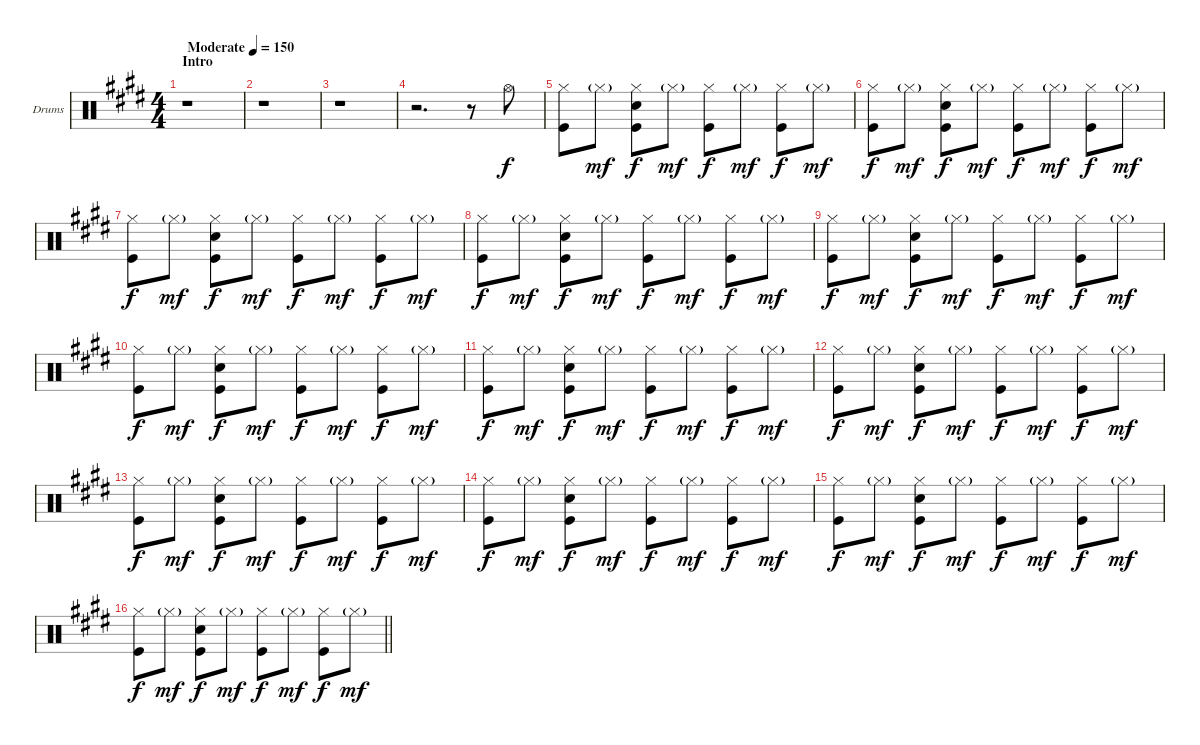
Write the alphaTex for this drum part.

\bracketExtendMode groupsimilarinstruments
\firstSystemTrackNameOrientation horizontal
\otherSystemsTrackNameOrientation horizontal
\track ("Drumkit" "Drums") {instrument percussion}
\staff {score}
\articulation defaults
\ts (4 4)
\beaming (8 2 2 2 2)
\section ("" "Intro")
\tempo (150 "Moderate")
\clef neutral
\ks e
r.1{dy f} |
r.1 |
r.1 |
r.2{d} r.8 "Hi-Hat (open)".8 |
("Hi-Hat (closed)" "Kick (hit)").8 "Hi-Hat (closed)"{g}.8{dy mf} ("Hi-Hat (closed)" "Snare (hit) 2" "Kick (hit)").8{dy f} "Hi-Hat (closed)"{g}.8{dy mf} ("Hi-Hat (closed)" "Kick (hit)").8{dy f} "Hi-Hat (closed)"{g}.8{dy mf} ("Hi-Hat (closed)" "Kick (hit)").8{dy f} "Hi-Hat (closed)"{g}.8{dy mf} |
("Hi-Hat (closed)" "Kick (hit)").8{dy f} "Hi-Hat (closed)"{g}.8{dy mf} ("Hi-Hat (closed)" "Snare (hit) 2" "Kick (hit)").8{dy f} "Hi-Hat (closed)"{g}.8{dy mf} ("Hi-Hat (closed)" "Kick (hit)").8{dy f} "Hi-Hat (closed)"{g}.8{dy mf} ("Hi-Hat (closed)" "Kick (hit)").8{dy f} "Hi-Hat (closed)"{g}.8{dy mf} |
("Hi-Hat (closed)" "Kick (hit)").8{dy f} "Hi-Hat (closed)"{g}.8{dy mf} ("Hi-Hat (closed)" "Snare (hit) 2" "Kick (hit)").8{dy f} "Hi-Hat (closed)"{g}.8{dy mf} ("Hi-Hat (closed)" "Kick (hit)").8{dy f} "Hi-Hat (closed)"{g}.8{dy mf} ("Hi-Hat (closed)" "Kick (hit)").8{dy f} "Hi-Hat (closed)"{g}.8{dy mf} |
("Hi-Hat (closed)" "Kick (hit)").8{dy f} "Hi-Hat (closed)"{g}.8{dy mf} ("Hi-Hat (closed)" "Snare (hit) 2" "Kick (hit)").8{dy f} "Hi-Hat (closed)"{g}.8{dy mf} ("Hi-Hat (closed)" "Kick (hit)").8{dy f} "Hi-Hat (closed)"{g}.8{dy mf} ("Hi-Hat (closed)" "Kick (hit)").8{dy f} "Hi-Hat (closed)"{g}.8{dy mf} |
("Hi-Hat (closed)" "Kick (hit)").8{dy f} "Hi-Hat (closed)"{g}.8{dy mf} ("Hi-Hat (closed)" "Snare (hit) 2" "Kick (hit)").8{dy f} "Hi-Hat (closed)"{g}.8{dy mf} ("Hi-Hat (closed)" "Kick (hit)").8{dy f} "Hi-Hat (closed)"{g}.8{dy mf} ("Hi-Hat (closed)" "Kick (hit)").8{dy f} "Hi-Hat (closed)"{g}.8{dy mf} |
("Hi-Hat (closed)" "Kick (hit)").8{dy f} "Hi-Hat (closed)"{g}.8{dy mf} ("Hi-Hat (closed)" "Snare (hit) 2" "Kick (hit)").8{dy f} "Hi-Hat (closed)"{g}.8{dy mf} ("Hi-Hat (closed)" "Kick (hit)").8{dy f} "Hi-Hat (closed)"{g}.8{dy mf} ("Hi-Hat (closed)" "Kick (hit)").8{dy f} "Hi-Hat (closed)"{g}.8{dy mf} |
("Hi-Hat (closed)" "Kick (hit)").8{dy f} "Hi-Hat (closed)"{g}.8{dy mf} ("Hi-Hat (closed)" "Snare (hit) 2" "Kick (hit)").8{dy f} "Hi-Hat (closed)"{g}.8{dy mf} ("Hi-Hat (closed)" "Kick (hit)").8{dy f} "Hi-Hat (closed)"{g}.8{dy mf} ("Hi-Hat (closed)" "Kick (hit)").8{dy f} "Hi-Hat (closed)"{g}.8{dy mf} |
("Hi-Hat (closed)" "Kick (hit)").8{dy f} "Hi-Hat (closed)"{g}.8{dy mf} ("Hi-Hat (closed)" "Snare (hit) 2" "Kick (hit)").8{dy f} "Hi-Hat (closed)"{g}.8{dy mf} ("Hi-Hat (closed)" "Kick (hit)").8{dy f} "Hi-Hat (closed)"{g}.8{dy mf} ("Hi-Hat (closed)" "Kick (hit)").8{dy f} "Hi-Hat (closed)"{g}.8{dy mf} |
("Hi-Hat (closed)" "Kick (hit)").8{dy f} "Hi-Hat (closed)"{g}.8{dy mf} ("Hi-Hat (closed)" "Snare (hit) 2" "Kick (hit)").8{dy f} "Hi-Hat (closed)"{g}.8{dy mf} ("Hi-Hat (closed)" "Kick (hit)").8{dy f} "Hi-Hat (closed)"{g}.8{dy mf} ("Hi-Hat (closed)" "Kick (hit)").8{dy f} "Hi-Hat (closed)"{g}.8{dy mf} |
("Hi-Hat (closed)" "Kick (hit)").8{dy f} "Hi-Hat (closed)"{g}.8{dy mf} ("Hi-Hat (closed)" "Snare (hit) 2" "Kick (hit)").8{dy f} "Hi-Hat (closed)"{g}.8{dy mf} ("Hi-Hat (closed)" "Kick (hit)").8{dy f} "Hi-Hat (closed)"{g}.8{dy mf} ("Hi-Hat (closed)" "Kick (hit)").8{dy f} "Hi-Hat (closed)"{g}.8{dy mf} |
("Hi-Hat (closed)" "Kick (hit)").8{dy f} "Hi-Hat (closed)"{g}.8{dy mf} ("Hi-Hat (closed)" "Snare (hit) 2" "Kick (hit)").8{dy f} "Hi-Hat (closed)"{g}.8{dy mf} ("Hi-Hat (closed)" "Kick (hit)").8{dy f} "Hi-Hat (closed)"{g}.8{dy mf} ("Hi-Hat (closed)" "Kick (hit)").8{dy f} "Hi-Hat (closed)"{g}.8{dy mf} |
\barLineRight lightlight
("Hi-Hat (closed)" "Kick (hit)").8{dy f} "Hi-Hat (closed)"{g}.8{dy mf} ("Hi-Hat (closed)" "Snare (hit) 2" "Kick (hit)").8{dy f} "Hi-Hat (closed)"{g}.8{dy mf} ("Hi-Hat (closed)" "Kick (hit)").8{dy f} "Hi-Hat (closed)"{g}.8{dy mf} ("Hi-Hat (closed)" "Kick (hit)").8{dy f} "Hi-Hat (closed)"{g}.8{dy mf}
